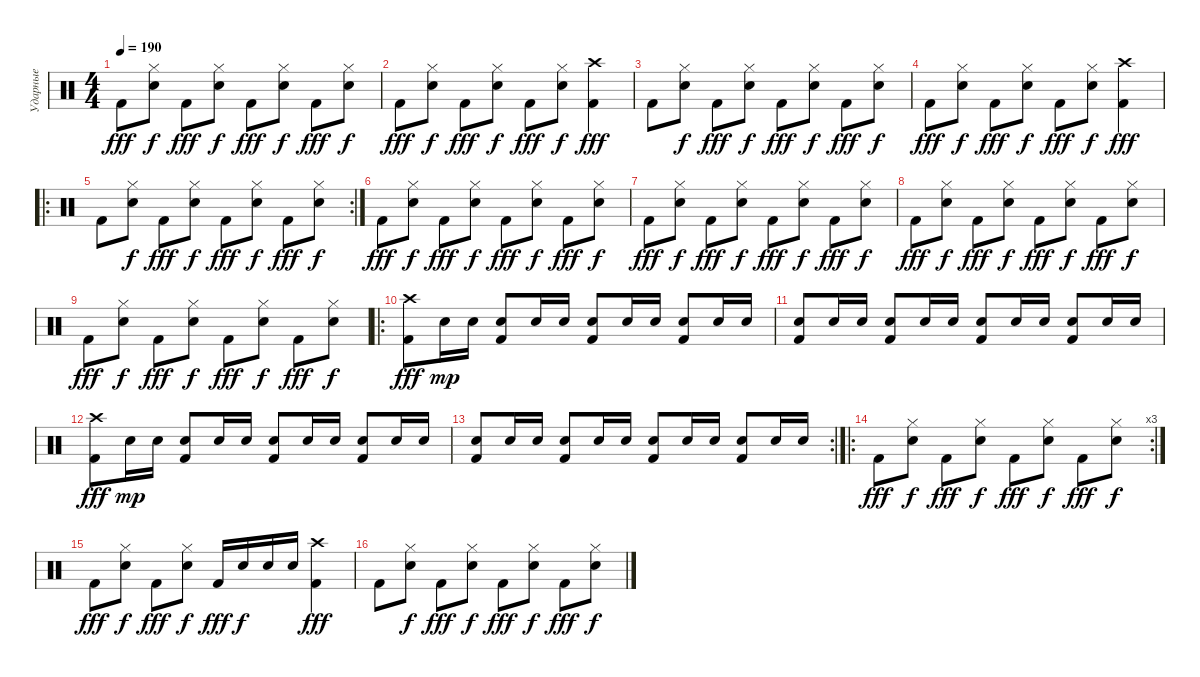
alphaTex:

\track ("Ударные" "Ударные") {instrument percussion}
\staff
\articulation defaults
\ts (4 4)
\tempo 190
\clef neutral
\ks c "Kick (hit) 2".8{dy fff}
("Snare (hit) 2" "Hi-Hat (closed)").8{dy f} "Kick (hit) 2".8{dy fff} ("Snare (hit) 2" "Hi-Hat (closed)").8{dy f} "Kick (hit) 2".8{dy fff} ("Snare (hit) 2" "Hi-Hat (closed)").8{dy f} "Kick (hit) 2".8{dy fff} ("Snare (hit) 2" "Hi-Hat (closed)").8{dy f} |
"Kick (hit) 2".8{dy fff} ("Snare (hit) 2" "Hi-Hat (closed)").8{dy f} "Kick (hit) 2".8{dy fff} ("Snare (hit) 2" "Hi-Hat (closed)").8{dy f} "Kick (hit) 2".8{dy fff} ("Snare (hit) 2" "Hi-Hat (closed)").8{dy f} ("Kick (hit) 2" "Crash high (hit)").4{dy fff} |
"Kick (hit) 2".8 ("Snare (hit) 2" "Hi-Hat (closed)").8{dy f} "Kick (hit) 2".8{dy fff} ("Snare (hit) 2" "Hi-Hat (closed)").8{dy f} "Kick (hit) 2".8{dy fff} ("Snare (hit) 2" "Hi-Hat (closed)").8{dy f} "Kick (hit) 2".8{dy fff} ("Snare (hit) 2" "Hi-Hat (closed)").8{dy f} |
"Kick (hit) 2".8{dy fff} ("Snare (hit) 2" "Hi-Hat (closed)").8{dy f} "Kick (hit) 2".8{dy fff} ("Snare (hit) 2" "Hi-Hat (closed)").8{dy f} "Kick (hit) 2".8{dy fff} ("Snare (hit) 2" "Hi-Hat (closed)").8{dy f} ("Kick (hit) 2" "Crash high (hit)").4{dy fff} |
\ro
\rc 2 "Kick (hit) 2".8
("Snare (hit) 2" "Hi-Hat (closed)").8{dy f} "Kick (hit) 2".8{dy fff} ("Snare (hit) 2" "Hi-Hat (closed)").8{dy f} "Kick (hit) 2".8{dy fff} ("Snare (hit) 2" "Hi-Hat (closed)").8{dy f} "Kick (hit) 2".8{dy fff} ("Snare (hit) 2" "Hi-Hat (closed)").8{dy f} |
"Kick (hit) 2".8{dy fff} ("Snare (hit) 2" "Hi-Hat (closed)").8{dy f} "Kick (hit) 2".8{dy fff} ("Snare (hit) 2" "Hi-Hat (closed)").8{dy f} "Kick (hit) 2".8{dy fff} ("Snare (hit) 2" "Hi-Hat (closed)").8{dy f} "Kick (hit) 2".8{dy fff} ("Snare (hit) 2" "Hi-Hat (closed)").8{dy f} |
"Kick (hit) 2".8{dy fff} ("Snare (hit) 2" "Hi-Hat (closed)").8{dy f} "Kick (hit) 2".8{dy fff} ("Snare (hit) 2" "Hi-Hat (closed)").8{dy f} "Kick (hit) 2".8{dy fff} ("Snare (hit) 2" "Hi-Hat (closed)").8{dy f} "Kick (hit) 2".8{dy fff} ("Snare (hit) 2" "Hi-Hat (closed)").8{dy f} |
"Kick (hit) 2".8{dy fff} ("Snare (hit) 2" "Hi-Hat (closed)").8{dy f} "Kick (hit) 2".8{dy fff} ("Snare (hit) 2" "Hi-Hat (closed)").8{dy f} "Kick (hit) 2".8{dy fff} ("Snare (hit) 2" "Hi-Hat (closed)").8{dy f} "Kick (hit) 2".8{dy fff} ("Snare (hit) 2" "Hi-Hat (closed)").8{dy f} |
"Kick (hit) 2".8{dy fff} ("Snare (hit) 2" "Hi-Hat (closed)").8{dy f} "Kick (hit) 2".8{dy fff} ("Snare (hit) 2" "Hi-Hat (closed)").8{dy f} "Kick (hit) 2".8{dy fff} ("Snare (hit) 2" "Hi-Hat (closed)").8{dy f} "Kick (hit) 2".8{dy fff} ("Snare (hit) 2" "Hi-Hat (closed)").8{dy f} |
\ro
("Kick (hit) 2" "Crash high (hit)").8{dy fff} "Snare (hit) 2".16{dy mp} "Snare (hit) 2".16 ("Kick (hit) 2" "Snare (hit) 2").8 "Snare (hit) 2".16 "Snare (hit) 2".16 ("Kick (hit) 2" "Snare (hit) 2").8 "Snare (hit) 2".16 "Snare (hit) 2".16 ("Kick (hit) 2" "Snare (hit) 2").8 "Snare (hit) 2".16 "Snare (hit) 2".16 |
("Kick (hit) 2" "Snare (hit) 2").8 "Snare (hit) 2".16 "Snare (hit) 2".16 ("Kick (hit) 2" "Snare (hit) 2").8 "Snare (hit) 2".16 "Snare (hit) 2".16 ("Kick (hit) 2" "Snare (hit) 2").8 "Snare (hit) 2".16 "Snare (hit) 2".16 ("Kick (hit) 2" "Snare (hit) 2").8 "Snare (hit) 2".16 "Snare (hit) 2".16 |
("Kick (hit) 2" "Crash high (hit)").8{dy fff} "Snare (hit) 2".16{dy mp} "Snare (hit) 2".16 ("Kick (hit) 2" "Snare (hit) 2").8 "Snare (hit) 2".16 "Snare (hit) 2".16 ("Kick (hit) 2" "Snare (hit) 2").8 "Snare (hit) 2".16 "Snare (hit) 2".16 ("Kick (hit) 2" "Snare (hit) 2").8 "Snare (hit) 2".16 "Snare (hit) 2".16 |
\rc 2
("Kick (hit) 2" "Snare (hit) 2").8 "Snare (hit) 2".16 "Snare (hit) 2".16 ("Kick (hit) 2" "Snare (hit) 2").8 "Snare (hit) 2".16 "Snare (hit) 2".16 ("Kick (hit) 2" "Snare (hit) 2").8 "Snare (hit) 2".16 "Snare (hit) 2".16 ("Kick (hit) 2" "Snare (hit) 2").8 "Snare (hit) 2".16 "Snare (hit) 2".16 |
\ro
\rc 3 "Kick (hit) 2".8{dy fff}
("Snare (hit) 2" "Hi-Hat (closed)").8{dy f} "Kick (hit) 2".8{dy fff} ("Snare (hit) 2" "Hi-Hat (closed)").8{dy f} "Kick (hit) 2".8{dy fff} ("Snare (hit) 2" "Hi-Hat (closed)").8{dy f} "Kick (hit) 2".8{dy fff} ("Snare (hit) 2" "Hi-Hat (closed)").8{dy f} |
"Kick (hit) 2".8{dy fff} ("Snare (hit) 2" "Hi-Hat (closed)").8{dy f} "Kick (hit) 2".8{dy fff} ("Snare (hit) 2" "Hi-Hat (closed)").8{dy f} "Kick (hit) 2".16{dy fff} "Snare (hit) 2".16{dy f} "Snare (hit) 2".16 "Snare (hit) 2".16 ("Kick (hit) 2" "Crash high (hit)").4{dy fff} |
"Kick (hit) 2".8 ("Snare (hit) 2" "Hi-Hat (closed)").8{dy f} "Kick (hit) 2".8{dy fff} ("Snare (hit) 2" "Hi-Hat (closed)").8{dy f} "Kick (hit) 2".8{dy fff} ("Snare (hit) 2" "Hi-Hat (closed)").8{dy f} "Kick (hit) 2".8{dy fff} ("Snare (hit) 2" "Hi-Hat (closed)").8{dy f}
